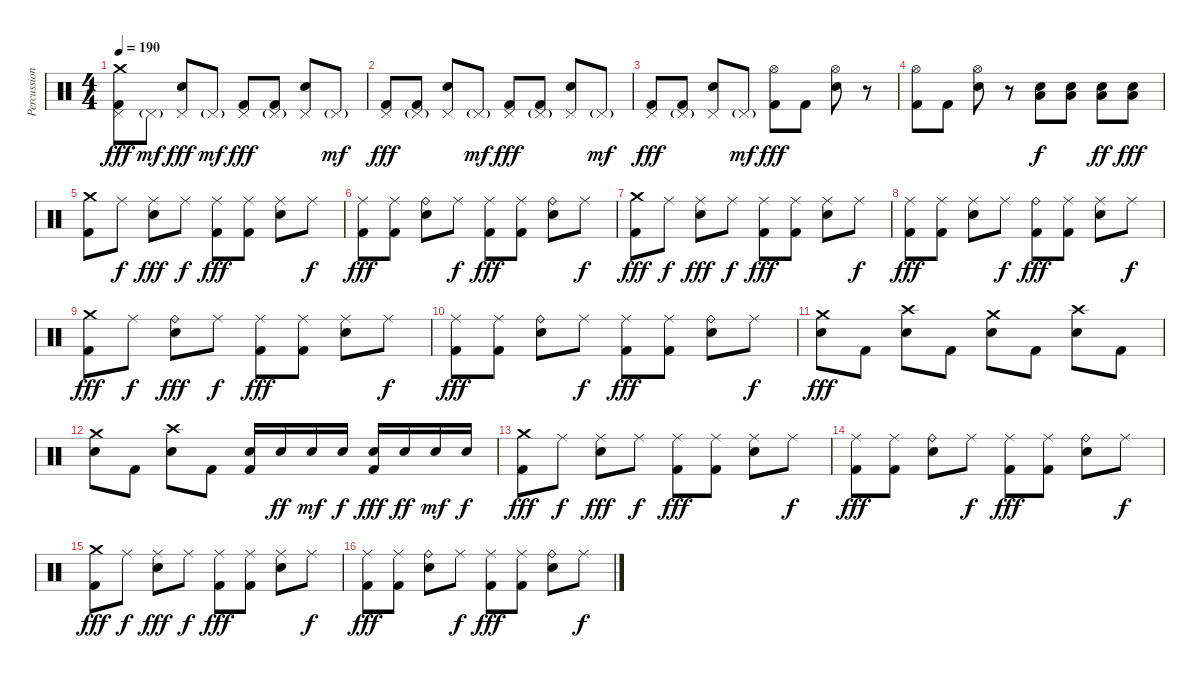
\track ("Percussions" "Percussion") {instrument percussion}
\staff {score}
\articulation defaults
\ts (4 4)
\tempo 190
\clef neutral
\ks c
("Crash medium (hit)" "Pedal Hi-Hat (hit)" "Kick (hit) 2").8{dy fff} "Pedal Hi-Hat (hit)"{g}.8{dy mf} ("Pedal Hi-Hat (hit)" "Electric Snare (hit)").8{dy fff} "Pedal Hi-Hat (hit)"{g}.8{dy mf} ("Pedal Hi-Hat (hit)" "Kick (hit) 2").8{dy fff} ("Pedal Hi-Hat (hit)"{g} "Kick (hit) 2").8 ("Pedal Hi-Hat (hit)" "Electric Snare (hit)").8 "Pedal Hi-Hat (hit)"{g}.8{dy mf} |
("Pedal Hi-Hat (hit)" "Kick (hit) 2").8{dy fff} ("Pedal Hi-Hat (hit)"{g} "Kick (hit) 2").8 ("Pedal Hi-Hat (hit)" "Electric Snare (hit)").8 "Pedal Hi-Hat (hit)"{g}.8{dy mf} ("Pedal Hi-Hat (hit)" "Kick (hit) 2").8{dy fff} ("Pedal Hi-Hat (hit)"{g} "Kick (hit) 2").8 ("Pedal Hi-Hat (hit)" "Electric Snare (hit)").8 "Pedal Hi-Hat (hit)"{g}.8{dy mf} |
("Pedal Hi-Hat (hit)" "Kick (hit) 2").8{dy fff} ("Pedal Hi-Hat (hit)"{g} "Kick (hit) 2").8 ("Pedal Hi-Hat (hit)" "Electric Snare (hit)").8 "Pedal Hi-Hat (hit)"{g}.8{dy mf} ("Hi-Hat (open)" "Kick (hit) 2").8{dy fff} "Kick (hit) 2".8 ("Hi-Hat (open)" "Electric Snare (hit)").8 r.8 |
("Hi-Hat (open)" "Kick (hit) 2").8 "Kick (hit) 2".8 ("Hi-Hat (open)" "Electric Snare (hit)").8 r.8 ("Electric Snare (hit)" "Low Floor Tom (hit)").8{dy f} ("Electric Snare (hit)" "Low Floor Tom (hit)").8 ("Electric Snare (hit)" "Low Floor Tom (hit)").8{dy ff} ("Electric Snare (hit)" "Low Floor Tom (hit)").8{dy fff} |
("Crash medium (hit)" "Kick (hit) 2").8 "Ride (middle)".8{dy f} ("Ride (middle)" "Electric Snare (hit)").8{dy fff} "Ride (middle)".8{dy f} ("Ride (middle)" "Kick (hit) 2").8{dy fff} ("Ride (middle)" "Kick (hit) 2").8 ("Ride (middle)" "Electric Snare (hit)").8 "Ride (middle)".8{dy f} |
("Ride (middle)" "Kick (hit) 2").8{dy fff} ("Ride (middle)" "Kick (hit) 2").8 ("Ride (bell)" "Electric Snare (hit)").8 "Ride (middle)".8{dy f} ("Ride (middle)" "Kick (hit) 2").8{dy fff} ("Ride (middle)" "Kick (hit) 2").8 ("Ride (bell)" "Electric Snare (hit)").8 "Ride (middle)".8{dy f} |
("Crash medium (hit)" "Kick (hit) 2").8{dy fff} "Ride (middle)".8{dy f} ("Ride (middle)" "Electric Snare (hit)").8{dy fff} "Ride (middle)".8{dy f} ("Ride (middle)" "Kick (hit) 2").8{dy fff} ("Ride (middle)" "Kick (hit) 2").8 ("Ride (middle)" "Electric Snare (hit)").8 "Ride (middle)".8{dy f} |
("Ride (middle)" "Kick (hit) 2").8{dy fff} ("Ride (middle)" "Kick (hit) 2").8 ("Ride (middle)" "Electric Snare (hit)").8 "Ride (middle)".8{dy f} ("Ride (bell)" "Kick (hit) 2").8{dy fff} ("Ride (middle)" "Kick (hit) 2").8 ("Ride (middle)" "Electric Snare (hit)").8 "Ride (middle)".8{dy f} |
("Crash medium (hit)" "Kick (hit) 2").8{dy fff} "Ride (middle)".8{dy f} ("Ride (bell)" "Electric Snare (hit)").8{dy fff} "Ride (middle)".8{dy f} ("Ride (middle)" "Kick (hit) 2").8{dy fff} ("Ride (middle)" "Kick (hit) 2").8 ("Ride (middle)" "Electric Snare (hit)").8 "Ride (middle)".8{dy f} |
("Ride (middle)" "Kick (hit) 2").8{dy fff} ("Ride (middle)" "Kick (hit) 2").8 ("Ride (bell)" "Electric Snare (hit)").8 "Ride (middle)".8{dy f} ("Ride (middle)" "Kick (hit) 2").8{dy fff} ("Ride (middle)" "Kick (hit) 2").8 ("Ride (bell)" "Electric Snare (hit)").8 "Ride (middle)".8{dy f} |
("Crash medium (hit)" "Electric Snare (hit)").8{dy fff} "Kick (hit) 2".8 ("Crash high (hit)" "Electric Snare (hit)").8 "Kick (hit) 2".8 ("Crash medium (hit)" "Electric Snare (hit)").8 "Kick (hit) 2".8 ("Crash high (hit)" "Electric Snare (hit)").8 "Kick (hit) 2".8 |
("Crash medium (hit)" "Electric Snare (hit)").8 "Kick (hit) 2".8 ("Crash high (hit)" "Electric Snare (hit)").8 "Kick (hit) 2".8 ("Electric Snare (hit)" "Kick (hit) 2").16 "Electric Snare (hit)".16{dy ff} "Electric Snare (hit)".16{dy mf} "Electric Snare (hit)".16{dy f} ("Electric Snare (hit)" "Kick (hit) 2").16{dy fff} "Electric Snare (hit)".16{dy ff} "Electric Snare (hit)".16{dy mf} "Electric Snare (hit)".16{dy f} |
("Crash medium (hit)" "Kick (hit) 2").8{dy fff} "Ride (middle)".8{dy f} ("Ride (middle)" "Electric Snare (hit)").8{dy fff} "Ride (middle)".8{dy f} ("Ride (middle)" "Kick (hit) 2").8{dy fff} ("Ride (middle)" "Kick (hit) 2").8 ("Ride (middle)" "Electric Snare (hit)").8 "Ride (middle)".8{dy f} |
("Ride (middle)" "Kick (hit) 2").8{dy fff} ("Ride (middle)" "Kick (hit) 2").8 ("Ride (bell)" "Electric Snare (hit)").8 "Ride (middle)".8{dy f} ("Ride (middle)" "Kick (hit) 2").8{dy fff} ("Ride (middle)" "Kick (hit) 2").8 ("Ride (bell)" "Electric Snare (hit)").8 "Ride (middle)".8{dy f} |
("Crash medium (hit)" "Kick (hit) 2").8{dy fff} "Ride (middle)".8{dy f} ("Ride (middle)" "Electric Snare (hit)").8{dy fff} "Ride (middle)".8{dy f} ("Ride (middle)" "Kick (hit) 2").8{dy fff} ("Ride (middle)" "Kick (hit) 2").8 ("Ride (middle)" "Electric Snare (hit)").8 "Ride (middle)".8{dy f} |
("Ride (middle)" "Kick (hit) 2").8{dy fff} ("Ride (middle)" "Kick (hit) 2").8 ("Ride (bell)" "Electric Snare (hit)").8 "Ride (middle)".8{dy f} ("Ride (middle)" "Kick (hit) 2").8{dy fff} ("Ride (middle)" "Kick (hit) 2").8 ("Ride (bell)" "Electric Snare (hit)").8 "Ride (middle)".8{dy f}
